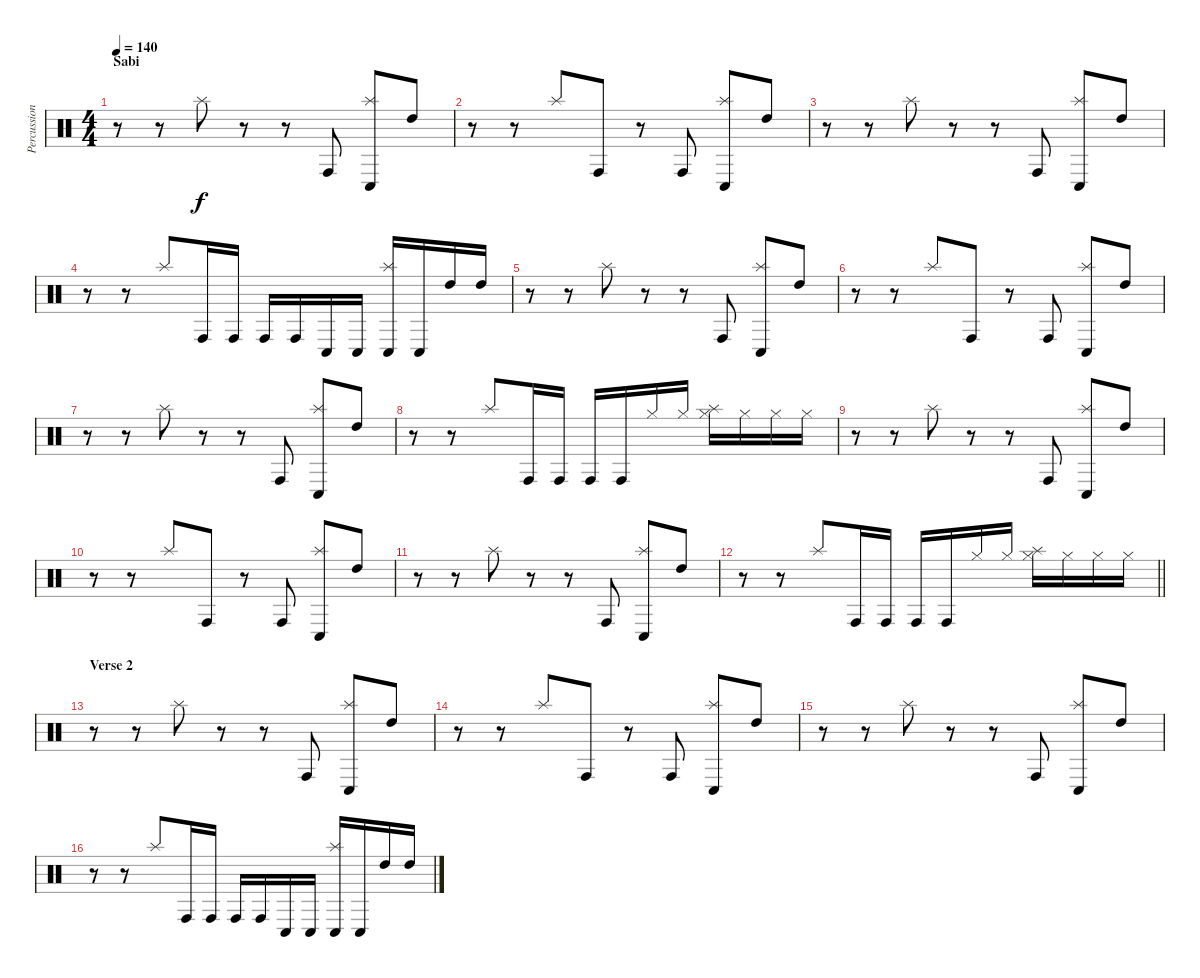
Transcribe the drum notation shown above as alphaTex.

\track ("Percussion" "Percussion") {instrument percussion}
\staff {score}
\articulation defaults
\ts (4 4)
\section ("" "Sabi")
\tempo 140
\clef neutral
\ks c
r.8{dy f} r.8 "Splash (hit)".8 r.8 r.8 "Conga high (hit)".8 ("Conga low (hit)" "Splash (hit)").8 "High Tom (hit)".8 |
r.8 r.8 "Splash (hit)".8 "Conga high (hit)".8 r.8 "Conga high (hit)".8 ("Conga low (hit)" "Splash (hit)").8 "High Tom (hit)".8 |
r.8 r.8 "Splash (hit)".8 r.8 r.8 "Conga high (hit)".8 ("Conga low (hit)" "Splash (hit)").8 "High Tom (hit)".8 |
r.8 r.8 "Splash (hit)".8 "Conga high (hit)".16 "Conga high (hit)".16 "Conga high (hit)".16 "Conga high (hit)".16 "Conga low (hit)".16 "Conga low (hit)".16 ("Conga low (hit)" "Splash (hit)").16 "Conga low (hit)".16 "High Tom (hit)".16 "High Tom (hit)".16 |
r.8 r.8 "Splash (hit)".8 r.8 r.8 "Conga high (hit)".8 ("Conga low (hit)" "Splash (hit)").8 "High Tom (hit)".8 |
r.8 r.8 "Splash (hit)".8 "Conga high (hit)".8 r.8 "Conga high (hit)".8 ("Conga low (hit)" "Splash (hit)").8 "High Tom (hit)".8 |
r.8 r.8 "Splash (hit)".8 r.8 r.8 "Conga high (hit)".8 ("Conga low (hit)" "Splash (hit)").8 "High Tom (hit)".8 |
r.8 r.8 "Splash (hit)".8 "Conga high (hit)".16 "Conga high (hit)".16 "Conga high (hit)".16 "Conga high (hit)".16 "Hi-Hat (closed)".16 "Hi-Hat (closed)".16 ("Hi-Hat (closed)" "Splash (hit)").16 "Hi-Hat (closed)".16 "Hi-Hat (closed)".16 "Hi-Hat (closed)".16 |
r.8 r.8 "Splash (hit)".8 r.8 r.8 "Conga high (hit)".8 ("Conga low (hit)" "Splash (hit)").8 "High Tom (hit)".8 |
r.8 r.8 "Splash (hit)".8 "Conga high (hit)".8 r.8 "Conga high (hit)".8 ("Conga low (hit)" "Splash (hit)").8 "High Tom (hit)".8 |
r.8 r.8 "Splash (hit)".8 r.8 r.8 "Conga high (hit)".8 ("Conga low (hit)" "Splash (hit)").8 "High Tom (hit)".8 |
\barLineRight lightlight
r.8 r.8 "Splash (hit)".8 "Conga high (hit)".16 "Conga high (hit)".16 "Conga high (hit)".16 "Conga high (hit)".16 "Hi-Hat (closed)".16 "Hi-Hat (closed)".16 ("Hi-Hat (closed)" "Splash (hit)").16 "Hi-Hat (closed)".16 "Hi-Hat (closed)".16 "Hi-Hat (closed)".16 |
\section ("" "Verse 2")
r.8 r.8 "Splash (hit)".8 r.8 r.8 "Conga high (hit)".8 ("Conga low (hit)" "Splash (hit)").8 "High Tom (hit)".8 |
r.8 r.8 "Splash (hit)".8 "Conga high (hit)".8 r.8 "Conga high (hit)".8 ("Conga low (hit)" "Splash (hit)").8 "High Tom (hit)".8 |
r.8 r.8 "Splash (hit)".8 r.8 r.8 "Conga high (hit)".8 ("Conga low (hit)" "Splash (hit)").8 "High Tom (hit)".8 |
r.8 r.8 "Splash (hit)".8 "Conga high (hit)".16 "Conga high (hit)".16 "Conga high (hit)".16 "Conga high (hit)".16 "Conga low (hit)".16 "Conga low (hit)".16 ("Conga low (hit)" "Splash (hit)").16 "Conga low (hit)".16 "High Tom (hit)".16 "High Tom (hit)".16
